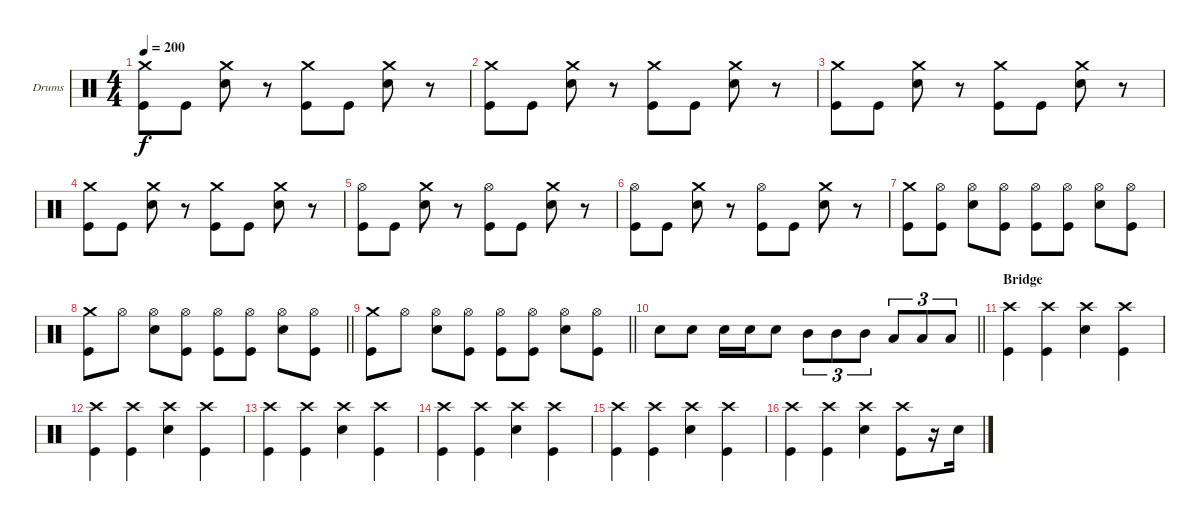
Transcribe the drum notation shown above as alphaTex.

\bracketExtendMode groupsimilarinstruments
\firstSystemTrackNameOrientation horizontal
\otherSystemsTrackNameOrientation horizontal
\track ("Drumkit" "Drums") {instrument percussion}
\staff {score}
\articulation defaults
\ts (4 4)
\tempo 200
\clef neutral
\ks c
("Crash medium (hit)" "Kick (hit)").8{dy f} "Kick (hit)".8 ("Crash medium (hit)" "Snare (hit) 2").8 r.8 ("Crash medium (hit)" "Kick (hit)").8 "Kick (hit)".8 ("Crash medium (hit)" "Snare (hit) 2").8 r.8 |
("Crash medium (hit)" "Kick (hit)").8 "Kick (hit)".8 ("Crash medium (hit)" "Snare (hit) 2").8 r.8 ("Crash medium (hit)" "Kick (hit)").8 "Kick (hit)".8 ("Crash medium (hit)" "Snare (hit) 2").8 r.8 |
("Crash medium (hit)" "Kick (hit)").8 "Kick (hit)".8 ("Crash medium (hit)" "Snare (hit) 2").8 r.8 ("Crash medium (hit)" "Kick (hit)").8 "Kick (hit)".8 ("Crash medium (hit)" "Snare (hit) 2").8 r.8 |
("Crash medium (hit)" "Kick (hit)").8 "Kick (hit)".8 ("Crash medium (hit)" "Snare (hit) 2").8 r.8 ("Crash medium (hit)" "Kick (hit)").8 "Kick (hit)".8 ("Crash medium (hit)" "Snare (hit) 2").8 r.8 |
("Kick (hit)" "Hi-Hat (open)").8 "Kick (hit)".8 ("Crash medium (hit)" "Snare (hit) 2").8 r.8 ("Kick (hit)" "Hi-Hat (open)").8 "Kick (hit)".8 ("Crash medium (hit)" "Snare (hit) 2").8 r.8 |
("Kick (hit)" "Hi-Hat (open)").8 "Kick (hit)".8 ("Crash medium (hit)" "Snare (hit) 2").8 r.8 ("Kick (hit)" "Hi-Hat (open)").8 "Kick (hit)".8 ("Crash medium (hit)" "Snare (hit) 2").8 r.8 |
("Kick (hit)" "Crash medium (hit)").8 ("Hi-Hat (open)" "Kick (hit)").8 ("Hi-Hat (open)" "Snare (hit) 2").8 ("Hi-Hat (open)" "Kick (hit)").8 ("Hi-Hat (open)" "Kick (hit)").8 ("Hi-Hat (open)" "Kick (hit)").8 ("Hi-Hat (open)" "Snare (hit) 2").8 ("Hi-Hat (open)" "Kick (hit)").8 |
\barLineRight lightlight
("Kick (hit)" "Crash medium (hit)").8 "Hi-Hat (open)".8 ("Hi-Hat (open)" "Snare (hit) 2").8 ("Hi-Hat (open)" "Kick (hit)").8 ("Hi-Hat (open)" "Kick (hit)").8 ("Hi-Hat (open)" "Kick (hit)").8 ("Hi-Hat (open)" "Snare (hit) 2").8 ("Hi-Hat (open)" "Kick (hit)").8 |
\barLineRight lightlight
("Kick (hit)" "Crash medium (hit)").8 "Hi-Hat (open)".8 ("Hi-Hat (open)" "Snare (hit) 2").8 ("Hi-Hat (open)" "Kick (hit)").8 ("Hi-Hat (open)" "Kick (hit)").8 ("Hi-Hat (open)" "Kick (hit)").8 ("Hi-Hat (open)" "Snare (hit) 2").8 ("Hi-Hat (open)" "Kick (hit)").8 |
\barLineRight lightlight "Snare (hit) 2".8 "Snare (hit) 2".8 "Snare (hit) 2".16 "Snare (hit) 2".16 "Snare (hit) 2".8 "Mid Tom (hit)".8{tu (3 2)} "Mid Tom (hit)".8{tu (3 2)} "Mid Tom (hit)".8{tu (3 2)} "Low Tom (hit)".8{tu (3 2)} "Low Tom (hit)".8{tu (3 2)} "Low Tom (hit)".8{tu (3 2)}
|
\section ("" "Bridge")
("Crash high (hit)" "Kick (hit)").4 ("Crash high (hit)" "Kick (hit)").4 ("Crash high (hit)" "Snare (hit) 2").4 ("Crash high (hit)" "Kick (hit)").4 |
("Crash high (hit)" "Kick (hit)").4 ("Crash high (hit)" "Kick (hit)").4 ("Crash high (hit)" "Snare (hit) 2").4 ("Crash high (hit)" "Kick (hit)").4 |
("Crash high (hit)" "Kick (hit)").4 ("Crash high (hit)" "Kick (hit)").4 ("Crash high (hit)" "Snare (hit) 2").4 ("Crash high (hit)" "Kick (hit)").4 |
("Crash high (hit)" "Kick (hit)").4 ("Crash high (hit)" "Kick (hit)").4 ("Crash high (hit)" "Snare (hit) 2").4 ("Crash high (hit)" "Kick (hit)").4 |
("Crash high (hit)" "Kick (hit)").4 ("Crash high (hit)" "Kick (hit)").4 ("Crash high (hit)" "Snare (hit) 2").4 ("Crash high (hit)" "Kick (hit)").4 |
("Crash high (hit)" "Kick (hit)").4 ("Crash high (hit)" "Kick (hit)").4 ("Crash high (hit)" "Snare (hit) 2").4 ("Crash high (hit)" "Kick (hit)").8 r.16 "Snare (hit) 2".16
